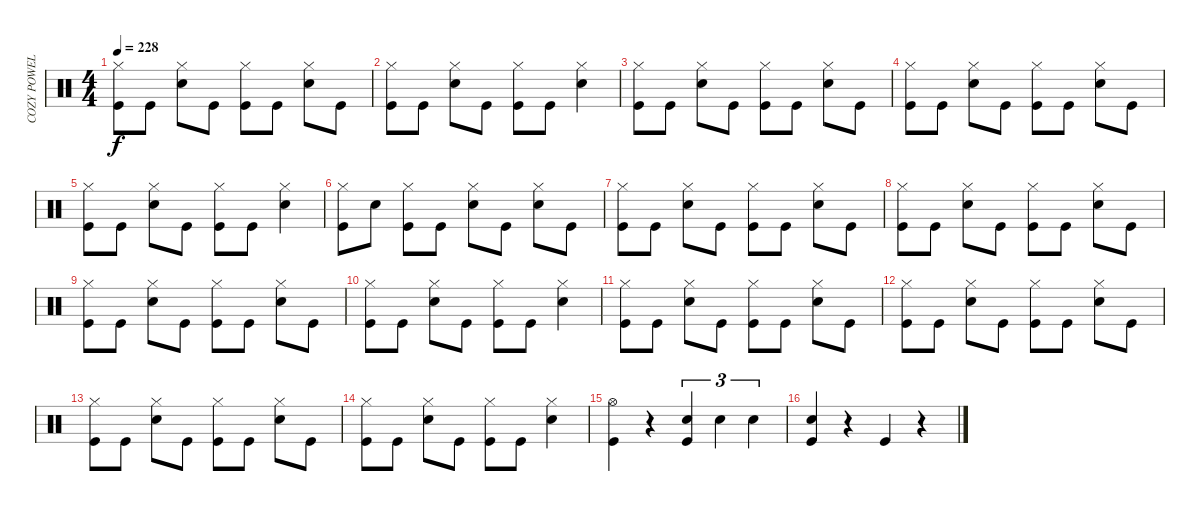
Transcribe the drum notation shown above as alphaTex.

\track ("COZY POWELL" "COZY POWEL") {instrument percussion}
\staff {score}
\articulation defaults
\ts (4 4)
\tempo 228
\clef neutral
\ks c
("Hi-Hat (closed)" "Kick (hit)").8{dy f} "Kick (hit)".8 ("Hi-Hat (closed)" "Snare (hit) 2").8 "Kick (hit)".8 ("Hi-Hat (closed)" "Kick (hit)").8 "Kick (hit)".8 ("Hi-Hat (closed)" "Snare (hit) 2").8 "Kick (hit)".8 |
("Hi-Hat (closed)" "Kick (hit)").8 "Kick (hit)".8 ("Hi-Hat (closed)" "Snare (hit) 2").8 "Kick (hit)".8 ("Hi-Hat (closed)" "Kick (hit)").8 "Kick (hit)".8 ("Hi-Hat (closed)" "Snare (hit) 2").4 |
("Hi-Hat (closed)" "Kick (hit)").8 "Kick (hit)".8 ("Hi-Hat (closed)" "Snare (hit) 2").8 "Kick (hit)".8 ("Hi-Hat (closed)" "Kick (hit)").8 "Kick (hit)".8 ("Hi-Hat (closed)" "Snare (hit) 2").8 "Kick (hit)".8 |
("Hi-Hat (closed)" "Kick (hit)").8 "Kick (hit)".8 ("Hi-Hat (closed)" "Snare (hit) 2").8 "Kick (hit)".8 ("Hi-Hat (closed)" "Kick (hit)").8 "Kick (hit)".8 ("Hi-Hat (closed)" "Snare (hit) 2").8 "Kick (hit)".8 |
("Hi-Hat (closed)" "Kick (hit)").8 "Kick (hit)".8 ("Hi-Hat (closed)" "Snare (hit) 2").8 "Kick (hit)".8 ("Hi-Hat (closed)" "Kick (hit)").8 "Kick (hit)".8 ("Hi-Hat (closed)" "Snare (hit) 2").4 |
("Hi-Hat (closed)" "Kick (hit)").8 "Snare (hit) 2".8 ("Hi-Hat (closed)" "Kick (hit)").8 "Kick (hit)".8 ("Hi-Hat (closed)" "Snare (hit) 2").8 "Kick (hit)".8 ("Hi-Hat (closed)" "Snare (hit) 2").8 "Kick (hit)".8 |
("Hi-Hat (closed)" "Kick (hit)").8 "Kick (hit)".8 ("Hi-Hat (closed)" "Snare (hit) 2").8 "Kick (hit)".8 ("Hi-Hat (closed)" "Kick (hit)").8 "Kick (hit)".8 ("Hi-Hat (closed)" "Snare (hit) 2").8 "Kick (hit)".8 |
("Hi-Hat (closed)" "Kick (hit)").8 "Kick (hit)".8 ("Hi-Hat (closed)" "Snare (hit) 2").8 "Kick (hit)".8 ("Hi-Hat (closed)" "Kick (hit)").8 "Kick (hit)".8 ("Hi-Hat (closed)" "Snare (hit) 2").8 "Kick (hit)".8 |
("Hi-Hat (closed)" "Kick (hit)").8 "Kick (hit)".8 ("Hi-Hat (closed)" "Snare (hit) 2").8 "Kick (hit)".8 ("Hi-Hat (closed)" "Kick (hit)").8 "Kick (hit)".8 ("Hi-Hat (closed)" "Snare (hit) 2").8 "Kick (hit)".8 |
("Hi-Hat (closed)" "Kick (hit)").8 "Kick (hit)".8 ("Hi-Hat (closed)" "Snare (hit) 2").8 "Kick (hit)".8 ("Hi-Hat (closed)" "Kick (hit)").8 "Kick (hit)".8 ("Hi-Hat (closed)" "Snare (hit) 2").4 |
("Hi-Hat (closed)" "Kick (hit)").8 "Kick (hit)".8 ("Hi-Hat (closed)" "Snare (hit) 2").8 "Kick (hit)".8 ("Hi-Hat (closed)" "Kick (hit)").8 "Kick (hit)".8 ("Hi-Hat (closed)" "Snare (hit) 2").8 "Kick (hit)".8 |
("Hi-Hat (closed)" "Kick (hit)").8 "Kick (hit)".8 ("Hi-Hat (closed)" "Snare (hit) 2").8 "Kick (hit)".8 ("Hi-Hat (closed)" "Kick (hit)").8 "Kick (hit)".8 ("Hi-Hat (closed)" "Snare (hit) 2").8 "Kick (hit)".8 |
("Hi-Hat (closed)" "Kick (hit)").8 "Kick (hit)".8 ("Hi-Hat (closed)" "Snare (hit) 2").8 "Kick (hit)".8 ("Hi-Hat (closed)" "Kick (hit)").8 "Kick (hit)".8 ("Hi-Hat (closed)" "Snare (hit) 2").8 "Kick (hit)".8 |
("Hi-Hat (closed)" "Kick (hit)").8 "Kick (hit)".8 ("Hi-Hat (closed)" "Snare (hit) 2").8 "Kick (hit)".8 ("Hi-Hat (closed)" "Kick (hit)").8 "Kick (hit)".8 ("Hi-Hat (closed)" "Snare (hit) 2").4 |
("Hi-Hat (open)" "Kick (hit)").4 r.4 ("Snare (hit) 2" "Kick (hit)").4{tu (3 2)} "Snare (hit) 2".4{tu (3 2)} "Snare (hit) 2".4{tu (3 2)} |
("Snare (hit) 2" "Kick (hit)").4 r.4 "Kick (hit)".4 r.4
